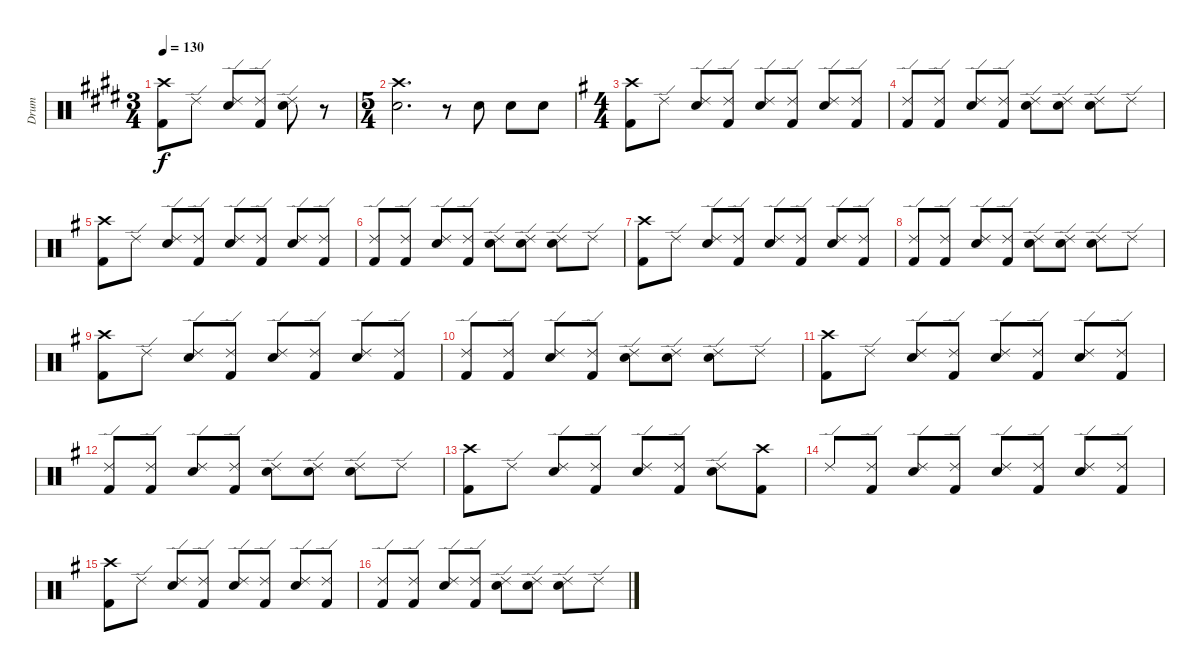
\track ("Drum" "Drum") {instrument percussion}
\staff {score}
\articulation defaults
\ts (3 4)
\tempo 130
\clef neutral
\ks e
("Kick (hit) 2" "Crash high (hit)").8{dy f} "Ride (edge) 2".8 ("Ride (edge) 2" "Electric Snare (hit)").8 ("Ride (edge) 2" "Kick (hit) 2").8 ("Electric Snare (hit)" "Ride (edge) 2").8 r.8 |
\ts (5 4)
("Crash high (hit)" "Electric Snare (hit)").2{d} r.8 "Electric Snare (hit)".8 "Electric Snare (hit)".8 "Electric Snare (hit)".8 |
\ts (4 4)
\ks g
("Kick (hit) 2" "Crash high (hit)").8 "Ride (edge) 2".8 ("Ride (edge) 2" "Electric Snare (hit)").8 ("Ride (edge) 2" "Kick (hit) 2").8 ("Electric Snare (hit)" "Ride (edge) 2").8 ("Ride (edge) 2" "Kick (hit) 2").8 ("Electric Snare (hit)" "Ride (edge) 2").8 ("Kick (hit) 2" "Ride (edge) 2").8 |
("Kick (hit) 2" "Ride (edge) 2").8 ("Kick (hit) 2" "Ride (edge) 2").8 ("Ride (edge) 2" "Electric Snare (hit)").8 ("Ride (edge) 2" "Kick (hit) 2").8 ("Electric Snare (hit)" "Ride (edge) 2").8 ("Ride (edge) 2" "Electric Snare (hit)").8 ("Electric Snare (hit)" "Ride (edge) 2").8 "Ride (edge) 2".8 |
("Kick (hit) 2" "Crash high (hit)").8 "Ride (edge) 2".8 ("Ride (edge) 2" "Electric Snare (hit)").8 ("Ride (edge) 2" "Kick (hit) 2").8 ("Electric Snare (hit)" "Ride (edge) 2").8 ("Ride (edge) 2" "Kick (hit) 2").8 ("Electric Snare (hit)" "Ride (edge) 2").8 ("Kick (hit) 2" "Ride (edge) 2").8 |
("Kick (hit) 2" "Ride (edge) 2").8 ("Kick (hit) 2" "Ride (edge) 2").8 ("Ride (edge) 2" "Electric Snare (hit)").8 ("Ride (edge) 2" "Kick (hit) 2").8 ("Electric Snare (hit)" "Ride (edge) 2").8 ("Ride (edge) 2" "Electric Snare (hit)").8 ("Electric Snare (hit)" "Ride (edge) 2").8 "Ride (edge) 2".8 |
("Kick (hit) 2" "Crash high (hit)").8 "Ride (edge) 2".8 ("Ride (edge) 2" "Electric Snare (hit)").8 ("Ride (edge) 2" "Kick (hit) 2").8 ("Electric Snare (hit)" "Ride (edge) 2").8 ("Ride (edge) 2" "Kick (hit) 2").8 ("Electric Snare (hit)" "Ride (edge) 2").8 ("Kick (hit) 2" "Ride (edge) 2").8 |
("Kick (hit) 2" "Ride (edge) 2").8 ("Kick (hit) 2" "Ride (edge) 2").8 ("Ride (edge) 2" "Electric Snare (hit)").8 ("Ride (edge) 2" "Kick (hit) 2").8 ("Electric Snare (hit)" "Ride (edge) 2").8 ("Ride (edge) 2" "Electric Snare (hit)").8 ("Electric Snare (hit)" "Ride (edge) 2").8 "Ride (edge) 2".8 |
("Kick (hit) 2" "Crash high (hit)").8 "Ride (edge) 2".8 ("Ride (edge) 2" "Electric Snare (hit)").8 ("Ride (edge) 2" "Kick (hit) 2").8 ("Electric Snare (hit)" "Ride (edge) 2").8 ("Ride (edge) 2" "Kick (hit) 2").8 ("Electric Snare (hit)" "Ride (edge) 2").8 ("Kick (hit) 2" "Ride (edge) 2").8 |
("Kick (hit) 2" "Ride (edge) 2").8 ("Kick (hit) 2" "Ride (edge) 2").8 ("Ride (edge) 2" "Electric Snare (hit)").8 ("Ride (edge) 2" "Kick (hit) 2").8 ("Electric Snare (hit)" "Ride (edge) 2").8 ("Ride (edge) 2" "Electric Snare (hit)").8 ("Electric Snare (hit)" "Ride (edge) 2").8 "Ride (edge) 2".8 |
("Kick (hit) 2" "Crash high (hit)").8 "Ride (edge) 2".8 ("Ride (edge) 2" "Electric Snare (hit)").8 ("Ride (edge) 2" "Kick (hit) 2").8 ("Electric Snare (hit)" "Ride (edge) 2").8 ("Ride (edge) 2" "Kick (hit) 2").8 ("Electric Snare (hit)" "Ride (edge) 2").8 ("Kick (hit) 2" "Ride (edge) 2").8 |
("Kick (hit) 2" "Ride (edge) 2").8 ("Kick (hit) 2" "Ride (edge) 2").8 ("Ride (edge) 2" "Electric Snare (hit)").8 ("Ride (edge) 2" "Kick (hit) 2").8 ("Electric Snare (hit)" "Ride (edge) 2").8 ("Ride (edge) 2" "Electric Snare (hit)").8 ("Electric Snare (hit)" "Ride (edge) 2").8 "Ride (edge) 2".8 |
("Kick (hit) 2" "Crash high (hit)").8 "Ride (edge) 2".8 ("Ride (edge) 2" "Electric Snare (hit)").8 ("Ride (edge) 2" "Kick (hit) 2").8 ("Electric Snare (hit)" "Ride (edge) 2").8 ("Ride (edge) 2" "Kick (hit) 2").8 ("Electric Snare (hit)" "Ride (edge) 2").8 ("Kick (hit) 2" "Crash high (hit)").8 |
"Ride (edge) 2".8 ("Kick (hit) 2" "Ride (edge) 2").8 ("Ride (edge) 2" "Electric Snare (hit)").8 ("Ride (edge) 2" "Kick (hit) 2").8 ("Electric Snare (hit)" "Ride (edge) 2").8 ("Ride (edge) 2" "Kick (hit) 2").8 ("Electric Snare (hit)" "Ride (edge) 2").8 ("Kick (hit) 2" "Ride (edge) 2").8 |
("Kick (hit) 2" "Crash high (hit)").8 "Ride (edge) 2".8 ("Ride (edge) 2" "Electric Snare (hit)").8 ("Ride (edge) 2" "Kick (hit) 2").8 ("Electric Snare (hit)" "Ride (edge) 2").8 ("Ride (edge) 2" "Kick (hit) 2").8 ("Electric Snare (hit)" "Ride (edge) 2").8 ("Kick (hit) 2" "Ride (edge) 2").8 |
("Kick (hit) 2" "Ride (edge) 2").8 ("Kick (hit) 2" "Ride (edge) 2").8 ("Ride (edge) 2" "Electric Snare (hit)").8 ("Ride (edge) 2" "Kick (hit) 2").8 ("Electric Snare (hit)" "Ride (edge) 2").8 ("Ride (edge) 2" "Electric Snare (hit)").8 ("Electric Snare (hit)" "Ride (edge) 2").8 "Ride (edge) 2".8
